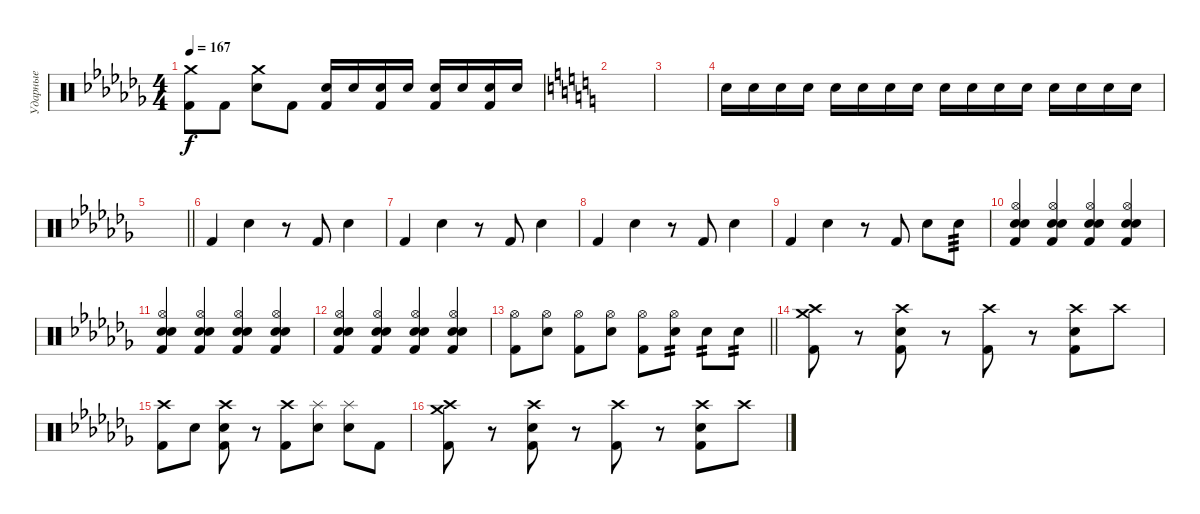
\track ("Ударные" "Ударные") {instrument percussion}
\staff {score}
\articulation defaults
\ts (4 4)
\tempo 167
\clef neutral
\ks abminor
("Crash medium (hit)" "Kick (hit) 2").8{dy f} "Kick (hit) 2".8 ("Crash medium (hit)" "Electric Snare (hit)").8 "Kick (hit) 2".8 ("Electric Snare (hit)" "Kick (hit) 2").16 "Electric Snare (hit)".16 ("Electric Snare (hit)" "Kick (hit) 2").16 "Electric Snare (hit)".16 ("Electric Snare (hit)" "Kick (hit) 2").16 "Electric Snare (hit)".16 ("Electric Snare (hit)" "Kick (hit) 2").16 "Electric Snare (hit)".16 |
\ks c
|
|
"Electric Snare (hit)".16 "Electric Snare (hit)".16 "Electric Snare (hit)".16 "Electric Snare (hit)".16 "Electric Snare (hit)".16 "Electric Snare (hit)".16 "Electric Snare (hit)".16 "Electric Snare (hit)".16 "Electric Snare (hit)".16 "Electric Snare (hit)".16 "Electric Snare (hit)".16 "Electric Snare (hit)".16 "Electric Snare (hit)".16 "Electric Snare (hit)".16 "Electric Snare (hit)".16 "Electric Snare (hit)".16 |
\barLineRight lightlight
\ks abminor
|
"Kick (hit) 2".4 "Electric Snare (hit)".4 r.8 "Kick (hit) 2".8 "Electric Snare (hit)".4 |
"Kick (hit) 2".4 "Electric Snare (hit)".4 r.8 "Kick (hit) 2".8 "Electric Snare (hit)".4 |
"Kick (hit) 2".4 "Electric Snare (hit)".4 r.8 "Kick (hit) 2".8 "Electric Snare (hit)".4 |
"Kick (hit) 2".4 "Electric Snare (hit)".4 r.8 "Kick (hit) 2".8 "Electric Snare (hit)".8 "Electric Snare (hit)".8{tp 3} |
("Hi-Hat (open)" "Snare (hit) 2" "Snare (hit) 2" "Kick (hit) 2").4 ("Hi-Hat (open)" "Snare (hit) 2" "Snare (hit) 2" "Kick (hit) 2").4 ("Hi-Hat (open)" "Snare (hit) 2" "Snare (hit) 2" "Kick (hit) 2").4 ("Hi-Hat (open)" "Snare (hit) 2" "Snare (hit) 2" "Kick (hit) 2").4 |
("Hi-Hat (open)" "Snare (hit) 2" "Snare (hit) 2" "Kick (hit) 2").4 ("Hi-Hat (open)" "Snare (hit) 2" "Snare (hit) 2" "Kick (hit) 2").4 ("Hi-Hat (open)" "Snare (hit) 2" "Snare (hit) 2" "Kick (hit) 2").4 ("Hi-Hat (open)" "Snare (hit) 2" "Snare (hit) 2" "Kick (hit) 2").4 |
("Hi-Hat (open)" "Snare (hit) 2" "Snare (hit) 2" "Kick (hit) 2").4 ("Hi-Hat (open)" "Snare (hit) 2" "Snare (hit) 2" "Kick (hit) 2").4 ("Hi-Hat (open)" "Snare (hit) 2" "Snare (hit) 2" "Kick (hit) 2").4 ("Hi-Hat (open)" "Snare (hit) 2" "Snare (hit) 2" "Kick (hit) 2").4 |
\barLineRight lightlight
("Hi-Hat (open)" "Kick (hit) 2").8 ("Hi-Hat (open)" "Electric Snare (hit)").8 ("Hi-Hat (open)" "Kick (hit) 2").8 ("Hi-Hat (open)" "Electric Snare (hit)").8 ("Hi-Hat (open)" "Kick (hit) 2").8 ("Hi-Hat (open)" "Electric Snare (hit)").8{tp 2} "Electric Snare (hit)".8{tp 2} "Electric Snare (hit)".8{tp 2} |
("Crash high (hit)" "Crash medium (hit)" "Kick (hit) 2").8 r.8 ("Crash high (hit)" "Electric Snare (hit)" "Kick (hit) 2").8 r.8 ("Crash high (hit)" "Kick (hit) 2").8 r.8 ("Crash high (hit)" "Electric Snare (hit)" "Kick (hit) 2").8 "Crash high (hit)".8 |
("Crash high (hit)" "Kick (hit) 2").8 "Electric Snare (hit)".8 ("Crash high (hit)" "Electric Snare (hit)" "Kick (hit) 2").8 r.8 ("Crash high (hit)" "Kick (hit) 2").8 ("Splash (hit)" "Electric Snare (hit)").8 ("Splash (hit)" "Electric Snare (hit)").8 "Kick (hit) 2".8 |
("Crash high (hit)" "Crash medium (hit)" "Kick (hit) 2").8 r.8 ("Crash high (hit)" "Electric Snare (hit)" "Kick (hit) 2").8 r.8 ("Crash high (hit)" "Kick (hit) 2").8 r.8 ("Crash high (hit)" "Electric Snare (hit)" "Kick (hit) 2").8 "Crash high (hit)".8
